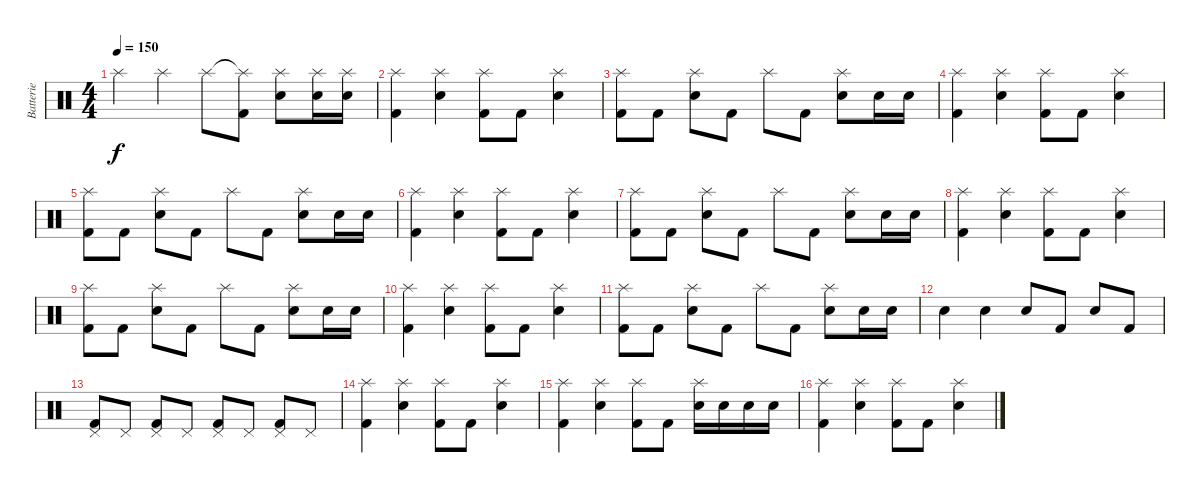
\track ("Batterie" "Batterie") {instrument percussion}
\staff {score}
\articulation defaults
\ts (4 4)
\tempo 150
\clef neutral
\ks c "Splash (hit)".4{dy f} "Splash (hit)".4 "Splash (hit)".8
("Splash (hit)"{t} "Kick (hit) 2").8 ("Splash (hit)" "Electric Snare (hit)").8 ("Splash (hit)" "Electric Snare (hit)").16 ("Splash (hit)" "Electric Snare (hit)").16 |
("Splash (hit)" "Kick (hit) 2").4 ("Splash (hit)" "Electric Snare (hit)").4 ("Splash (hit)" "Kick (hit) 2").8 "Kick (hit) 2".8 ("Splash (hit)" "Electric Snare (hit)").4 |
("Splash (hit)" "Kick (hit) 2").8 "Kick (hit) 2".8 ("Splash (hit)" "Electric Snare (hit)").8 "Kick (hit) 2".8 "Splash (hit)".8 "Kick (hit) 2".8 ("Splash (hit)" "Electric Snare (hit)").8 "Electric Snare (hit)".16 "Electric Snare (hit)".16 |
("Splash (hit)" "Kick (hit) 2").4 ("Splash (hit)" "Electric Snare (hit)").4 ("Splash (hit)" "Kick (hit) 2").8 "Kick (hit) 2".8 ("Splash (hit)" "Electric Snare (hit)").4 |
("Splash (hit)" "Kick (hit) 2").8 "Kick (hit) 2".8 ("Splash (hit)" "Electric Snare (hit)").8 "Kick (hit) 2".8 "Splash (hit)".8 "Kick (hit) 2".8 ("Splash (hit)" "Electric Snare (hit)").8 "Electric Snare (hit)".16 "Electric Snare (hit)".16 |
("Splash (hit)" "Kick (hit) 2").4 ("Splash (hit)" "Electric Snare (hit)").4 ("Splash (hit)" "Kick (hit) 2").8 "Kick (hit) 2".8 ("Splash (hit)" "Electric Snare (hit)").4 |
("Splash (hit)" "Kick (hit) 2").8 "Kick (hit) 2".8 ("Splash (hit)" "Electric Snare (hit)").8 "Kick (hit) 2".8 "Splash (hit)".8 "Kick (hit) 2".8 ("Splash (hit)" "Electric Snare (hit)").8 "Electric Snare (hit)".16 "Electric Snare (hit)".16 |
("Splash (hit)" "Kick (hit) 2").4 ("Splash (hit)" "Electric Snare (hit)").4 ("Splash (hit)" "Kick (hit) 2").8 "Kick (hit) 2".8 ("Splash (hit)" "Electric Snare (hit)").4 |
("Splash (hit)" "Kick (hit) 2").8 "Kick (hit) 2".8 ("Splash (hit)" "Electric Snare (hit)").8 "Kick (hit) 2".8 "Splash (hit)".8 "Kick (hit) 2".8 ("Splash (hit)" "Electric Snare (hit)").8 "Electric Snare (hit)".16 "Electric Snare (hit)".16 |
("Splash (hit)" "Kick (hit) 2").4 ("Splash (hit)" "Electric Snare (hit)").4 ("Splash (hit)" "Kick (hit) 2").8 "Kick (hit) 2".8 ("Splash (hit)" "Electric Snare (hit)").4 |
("Splash (hit)" "Kick (hit) 2").8 "Kick (hit) 2".8 ("Splash (hit)" "Electric Snare (hit)").8 "Kick (hit) 2".8 "Splash (hit)".8 "Kick (hit) 2".8 ("Splash (hit)" "Electric Snare (hit)").8 "Electric Snare (hit)".16 "Electric Snare (hit)".16 |
"Electric Snare (hit)".4 "Electric Snare (hit)".4 "Electric Snare (hit)".8 "Kick (hit) 2".8 "Electric Snare (hit)".8 "Kick (hit) 2".8 |
("Pedal Hi-Hat (hit)" "Kick (hit) 2").8 "Pedal Hi-Hat (hit)".8 ("Pedal Hi-Hat (hit)" "Kick (hit) 2").8 "Pedal Hi-Hat (hit)".8 ("Pedal Hi-Hat (hit)" "Kick (hit) 2").8 "Pedal Hi-Hat (hit)".8 ("Pedal Hi-Hat (hit)" "Kick (hit) 2").8 "Pedal Hi-Hat (hit)".8 |
("Splash (hit)" "Kick (hit) 2").4 ("Splash (hit)" "Electric Snare (hit)").4 ("Splash (hit)" "Kick (hit) 2").8 "Kick (hit) 2".8 ("Splash (hit)" "Electric Snare (hit)").4 |
("Splash (hit)" "Kick (hit) 2").4 ("Splash (hit)" "Electric Snare (hit)").4 ("Splash (hit)" "Kick (hit) 2").8 "Kick (hit) 2".8 ("Splash (hit)" "Electric Snare (hit)").16 "Electric Snare (hit)".16 "Electric Snare (hit)".16 "Electric Snare (hit)".16 |
("Splash (hit)" "Kick (hit) 2").4 ("Splash (hit)" "Electric Snare (hit)").4 ("Splash (hit)" "Kick (hit) 2").8 "Kick (hit) 2".8 ("Splash (hit)" "Electric Snare (hit)").4
